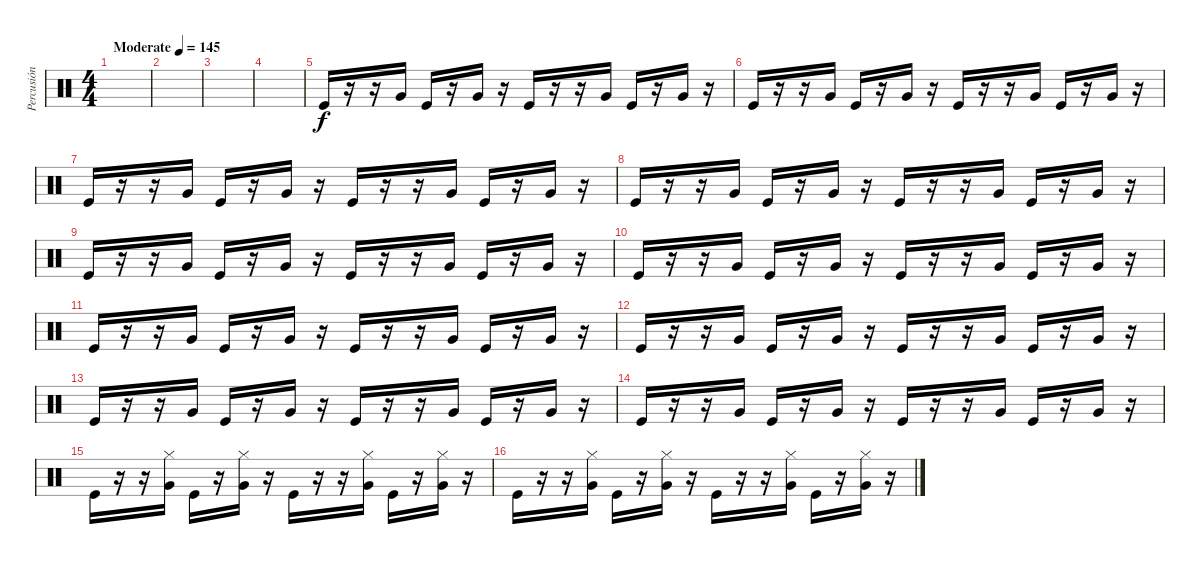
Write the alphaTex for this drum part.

\track ("Percusión" "Percusión") {instrument percussion}
\staff {score}
\articulation defaults
\ts (4 4)
\tempo (145 "Moderate")
\clef neutral
\ks c
|
|
|
|
"Kick (hit)".16 r.16 r.16 "Very Low Tom (hit)".16 "Kick (hit)".16 r.16 "Very Low Tom (hit)".16 r.16 "Kick (hit)".16 r.16 r.16 "Very Low Tom (hit)".16 "Kick (hit)".16 r.16 "Very Low Tom (hit)".16 r.16 |
"Kick (hit)".16 r.16 r.16 "Very Low Tom (hit)".16 "Kick (hit)".16 r.16 "Very Low Tom (hit)".16 r.16 "Kick (hit)".16 r.16 r.16 "Very Low Tom (hit)".16 "Kick (hit)".16 r.16 "Very Low Tom (hit)".16 r.16 |
"Kick (hit)".16 r.16 r.16 "Very Low Tom (hit)".16 "Kick (hit)".16 r.16 "Very Low Tom (hit)".16 r.16 "Kick (hit)".16 r.16 r.16 "Very Low Tom (hit)".16 "Kick (hit)".16 r.16 "Very Low Tom (hit)".16 r.16 |
"Kick (hit)".16 r.16 r.16 "Very Low Tom (hit)".16 "Kick (hit)".16 r.16 "Very Low Tom (hit)".16 r.16 "Kick (hit)".16 r.16 r.16 "Very Low Tom (hit)".16 "Kick (hit)".16 r.16 "Very Low Tom (hit)".16 r.16 |
"Kick (hit)".16 r.16 r.16 "Very Low Tom (hit)".16 "Kick (hit)".16 r.16 "Very Low Tom (hit)".16 r.16 "Kick (hit)".16 r.16 r.16 "Very Low Tom (hit)".16 "Kick (hit)".16 r.16 "Very Low Tom (hit)".16 r.16 |
"Kick (hit)".16 r.16 r.16 "Very Low Tom (hit)".16 "Kick (hit)".16 r.16 "Very Low Tom (hit)".16 r.16 "Kick (hit)".16 r.16 r.16 "Very Low Tom (hit)".16 "Kick (hit)".16 r.16 "Very Low Tom (hit)".16 r.16 |
"Kick (hit)".16 r.16 r.16 "Very Low Tom (hit)".16 "Kick (hit)".16 r.16 "Very Low Tom (hit)".16 r.16 "Kick (hit)".16 r.16 r.16 "Very Low Tom (hit)".16 "Kick (hit)".16 r.16 "Very Low Tom (hit)".16 r.16 |
"Kick (hit)".16 r.16 r.16 "Very Low Tom (hit)".16 "Kick (hit)".16 r.16 "Very Low Tom (hit)".16 r.16 "Kick (hit)".16 r.16 r.16 "Very Low Tom (hit)".16 "Kick (hit)".16 r.16 "Very Low Tom (hit)".16 r.16 |
"Kick (hit)".16 r.16 r.16 "Very Low Tom (hit)".16 "Kick (hit)".16 r.16 "Very Low Tom (hit)".16 r.16 "Kick (hit)".16 r.16 r.16 "Very Low Tom (hit)".16 "Kick (hit)".16 r.16 "Very Low Tom (hit)".16 r.16 |
"Kick (hit)".16 r.16 r.16 "Very Low Tom (hit)".16 "Kick (hit)".16 r.16 "Very Low Tom (hit)".16 r.16 "Kick (hit)".16 r.16 r.16 "Very Low Tom (hit)".16 "Kick (hit)".16 r.16 "Very Low Tom (hit)".16 r.16 |
"Kick (hit)".16 r.16 r.16 ("Hi-Hat (closed)" "Very Low Tom (hit)").16 "Kick (hit)".16 r.16 ("Hi-Hat (closed)" "Very Low Tom (hit)").16 r.16 "Kick (hit)".16 r.16 r.16 ("Hi-Hat (closed)" "Very Low Tom (hit)").16 "Kick (hit)".16 r.16 ("Hi-Hat (closed)" "Very Low Tom (hit)").16 r.16 |
"Kick (hit)".16 r.16 r.16 ("Hi-Hat (closed)" "Very Low Tom (hit)").16 "Kick (hit)".16 r.16 ("Hi-Hat (closed)" "Very Low Tom (hit)").16 r.16 "Kick (hit)".16 r.16 r.16 ("Hi-Hat (closed)" "Very Low Tom (hit)").16 "Kick (hit)".16 r.16 ("Hi-Hat (closed)" "Very Low Tom (hit)").16 r.16
